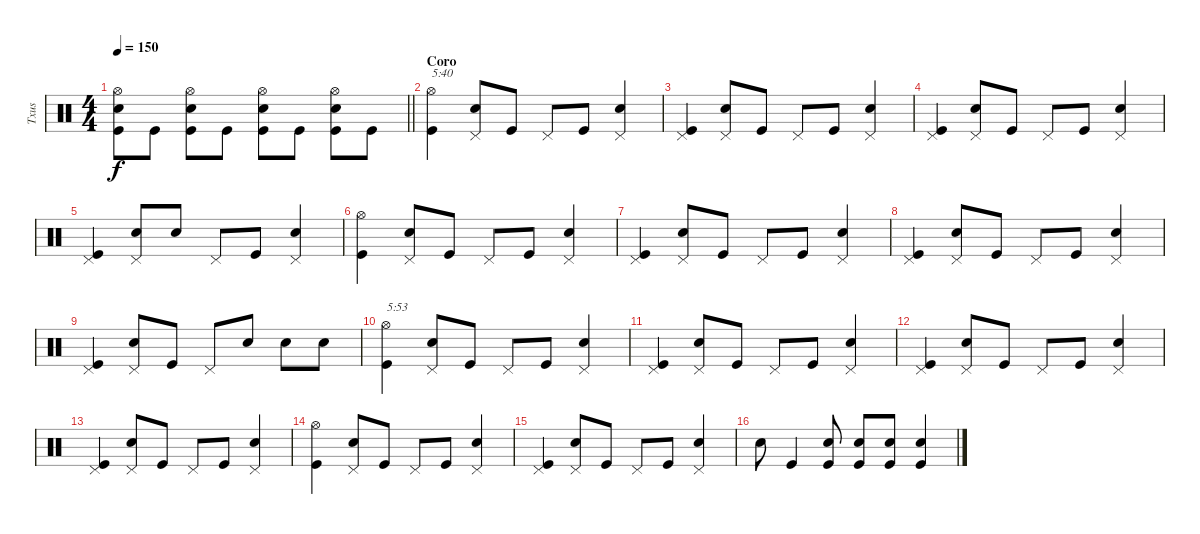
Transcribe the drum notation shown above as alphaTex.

\track ("Txus" "Txus") {instrument percussion}
\staff {score}
\articulation defaults
\ts (4 4)
\tempo 150
\clef neutral
\barLineRight lightlight
\ks c
("Kick (hit)" "Snare (hit) 2" "Hi-Hat (open)").8{dy f} "Kick (hit)".8 ("Kick (hit)" "Snare (hit) 2" "Hi-Hat (open)").8 "Kick (hit)".8 ("Kick (hit)" "Snare (hit) 2" "Hi-Hat (open)").8 "Kick (hit)".8 ("Kick (hit)" "Snare (hit) 2" "Hi-Hat (open)").8 "Kick (hit)".8 |
\section ("" "Coro")
("Kick (hit)" "Hi-Hat (open)").4{txt "5:40"} ("Snare (hit) 2" "Pedal Hi-Hat (hit)").8 "Kick (hit)".8 "Pedal Hi-Hat (hit)".8 "Kick (hit)".8 ("Snare (hit) 2" "Pedal Hi-Hat (hit)").4 |
("Kick (hit)" "Pedal Hi-Hat (hit)").4 ("Snare (hit) 2" "Pedal Hi-Hat (hit)").8 "Kick (hit)".8 "Pedal Hi-Hat (hit)".8 "Kick (hit)".8 ("Snare (hit) 2" "Pedal Hi-Hat (hit)").4 |
("Kick (hit)" "Pedal Hi-Hat (hit)").4 ("Snare (hit) 2" "Pedal Hi-Hat (hit)").8 "Kick (hit)".8 "Pedal Hi-Hat (hit)".8 "Kick (hit)".8 ("Snare (hit) 2" "Pedal Hi-Hat (hit)").4 |
("Kick (hit)" "Pedal Hi-Hat (hit)").4 ("Snare (hit) 2" "Pedal Hi-Hat (hit)").8 "Snare (hit) 2".8 "Pedal Hi-Hat (hit)".8 "Kick (hit)".8 ("Snare (hit) 2" "Pedal Hi-Hat (hit)").4 |
("Kick (hit)" "Hi-Hat (open)").4 ("Snare (hit) 2" "Pedal Hi-Hat (hit)").8 "Kick (hit)".8 "Pedal Hi-Hat (hit)".8 "Kick (hit)".8 ("Snare (hit) 2" "Pedal Hi-Hat (hit)").4 |
("Kick (hit)" "Pedal Hi-Hat (hit)").4 ("Snare (hit) 2" "Pedal Hi-Hat (hit)").8 "Kick (hit)".8 "Pedal Hi-Hat (hit)".8 "Kick (hit)".8 ("Snare (hit) 2" "Pedal Hi-Hat (hit)").4 |
("Kick (hit)" "Pedal Hi-Hat (hit)").4 ("Snare (hit) 2" "Pedal Hi-Hat (hit)").8 "Kick (hit)".8 "Pedal Hi-Hat (hit)".8 "Kick (hit)".8 ("Snare (hit) 2" "Pedal Hi-Hat (hit)").4 |
("Kick (hit)" "Pedal Hi-Hat (hit)").4 ("Snare (hit) 2" "Pedal Hi-Hat (hit)").8 "Kick (hit)".8 "Pedal Hi-Hat (hit)".8 "Snare (hit) 2".8 "Snare (hit) 2".8 "Snare (hit) 2".8 |
("Kick (hit)" "Hi-Hat (open)").4{txt "5:53"} ("Snare (hit) 2" "Pedal Hi-Hat (hit)").8 "Kick (hit)".8 "Pedal Hi-Hat (hit)".8 "Kick (hit)".8 ("Snare (hit) 2" "Pedal Hi-Hat (hit)").4 |
("Kick (hit)" "Pedal Hi-Hat (hit)").4 ("Snare (hit) 2" "Pedal Hi-Hat (hit)").8 "Kick (hit)".8 "Pedal Hi-Hat (hit)".8 "Kick (hit)".8 ("Snare (hit) 2" "Pedal Hi-Hat (hit)").4 |
("Kick (hit)" "Pedal Hi-Hat (hit)").4 ("Snare (hit) 2" "Pedal Hi-Hat (hit)").8 "Kick (hit)".8 "Pedal Hi-Hat (hit)".8 "Kick (hit)".8 ("Snare (hit) 2" "Pedal Hi-Hat (hit)").4 |
("Kick (hit)" "Pedal Hi-Hat (hit)").4 ("Snare (hit) 2" "Pedal Hi-Hat (hit)").8 "Kick (hit)".8 "Pedal Hi-Hat (hit)".8 "Kick (hit)".8 ("Snare (hit) 2" "Pedal Hi-Hat (hit)").4 |
("Kick (hit)" "Hi-Hat (open)").4 ("Snare (hit) 2" "Pedal Hi-Hat (hit)").8 "Kick (hit)".8 "Pedal Hi-Hat (hit)".8 "Kick (hit)".8 ("Snare (hit) 2" "Pedal Hi-Hat (hit)").4 |
("Kick (hit)" "Pedal Hi-Hat (hit)").4 ("Snare (hit) 2" "Pedal Hi-Hat (hit)").8 "Kick (hit)".8 "Pedal Hi-Hat (hit)".8 "Kick (hit)".8 ("Snare (hit) 2" "Pedal Hi-Hat (hit)").4 |
"Snare (hit) 2".8 "Kick (hit)".4 ("Kick (hit)" "Snare (hit) 2").8 ("Kick (hit)" "Snare (hit) 2").8 ("Kick (hit)" "Snare (hit) 2").8 ("Kick (hit)" "Snare (hit) 2").4
